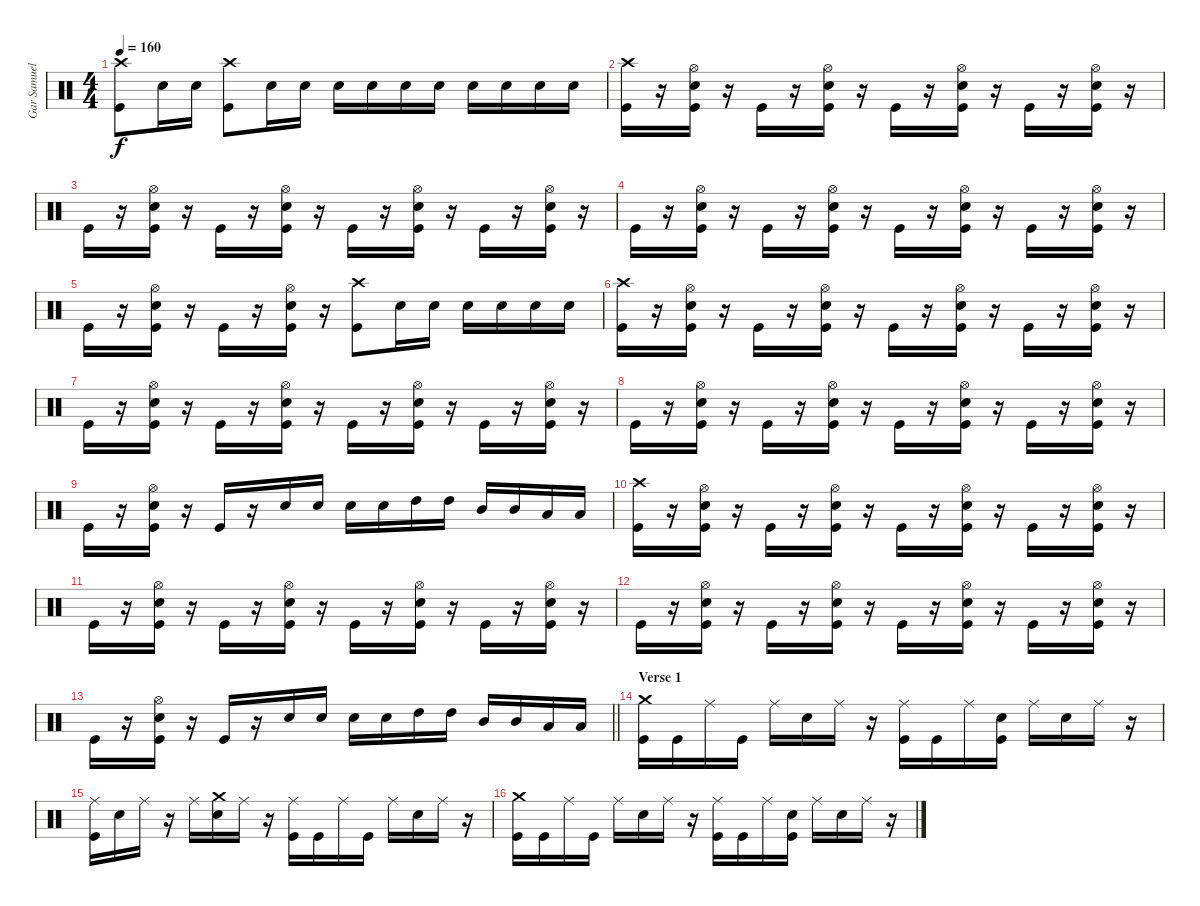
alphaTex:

\track ("Gar Samuelson" "Gar Samuel") {instrument percussion}
\staff {score}
\articulation defaults
\ts (4 4)
\tempo 160
\clef neutral
\ks c
("Crash high (hit)" "Kick (hit)").8{dy f} "Snare (hit) 2".16 "Snare (hit) 2".16 ("Crash high (hit)" "Kick (hit)").8 "Snare (hit) 2".16 "Snare (hit) 2".16 "Snare (hit) 2".16 "Snare (hit) 2".16 "Snare (hit) 2".16 "Snare (hit) 2".16 "Snare (hit) 2".16 "Snare (hit) 2".16 "Snare (hit) 2".16 "Snare (hit) 2".16 |
("Crash high (hit)" "Kick (hit)").16 r.16 ("Hi-Hat (open)" "Snare (hit) 2" "Kick (hit)").16 r.16 "Kick (hit)".16 r.16 ("Hi-Hat (open)" "Snare (hit) 2" "Kick (hit)").16 r.16 "Kick (hit)".16 r.16 ("Hi-Hat (open)" "Snare (hit) 2" "Kick (hit)").16 r.16 "Kick (hit)".16 r.16 ("Hi-Hat (open)" "Snare (hit) 2" "Kick (hit)").16 r.16 |
"Kick (hit)".16 r.16 ("Hi-Hat (open)" "Snare (hit) 2" "Kick (hit)").16 r.16 "Kick (hit)".16 r.16 ("Hi-Hat (open)" "Snare (hit) 2" "Kick (hit)").16 r.16 "Kick (hit)".16 r.16 ("Hi-Hat (open)" "Snare (hit) 2" "Kick (hit)").16 r.16 "Kick (hit)".16 r.16 ("Hi-Hat (open)" "Snare (hit) 2" "Kick (hit)").16 r.16 |
"Kick (hit)".16 r.16 ("Hi-Hat (open)" "Snare (hit) 2" "Kick (hit)").16 r.16 "Kick (hit)".16 r.16 ("Hi-Hat (open)" "Snare (hit) 2" "Kick (hit)").16 r.16 "Kick (hit)".16 r.16 ("Hi-Hat (open)" "Snare (hit) 2" "Kick (hit)").16 r.16 "Kick (hit)".16 r.16 ("Hi-Hat (open)" "Snare (hit) 2" "Kick (hit)").16 r.16 |
"Kick (hit)".16 r.16 ("Hi-Hat (open)" "Snare (hit) 2" "Kick (hit)").16 r.16 "Kick (hit)".16 r.16 ("Hi-Hat (open)" "Snare (hit) 2" "Kick (hit)").16 r.16 ("Crash high (hit)" "Kick (hit)").8 "Snare (hit) 2".16 "Snare (hit) 2".16 "Snare (hit) 2".16 "Snare (hit) 2".16 "Snare (hit) 2".16 "Snare (hit) 2".16 |
("Crash high (hit)" "Kick (hit)").16 r.16 ("Hi-Hat (open)" "Snare (hit) 2" "Kick (hit)").16 r.16 "Kick (hit)".16 r.16 ("Hi-Hat (open)" "Snare (hit) 2" "Kick (hit)").16 r.16 "Kick (hit)".16 r.16 ("Hi-Hat (open)" "Snare (hit) 2" "Kick (hit)").16 r.16 "Kick (hit)".16 r.16 ("Hi-Hat (open)" "Snare (hit) 2" "Kick (hit)").16 r.16 |
"Kick (hit)".16 r.16 ("Hi-Hat (open)" "Snare (hit) 2" "Kick (hit)").16 r.16 "Kick (hit)".16 r.16 ("Hi-Hat (open)" "Snare (hit) 2" "Kick (hit)").16 r.16 "Kick (hit)".16 r.16 ("Hi-Hat (open)" "Snare (hit) 2" "Kick (hit)").16 r.16 "Kick (hit)".16 r.16 ("Hi-Hat (open)" "Snare (hit) 2" "Kick (hit)").16 r.16 |
"Kick (hit)".16 r.16 ("Hi-Hat (open)" "Snare (hit) 2" "Kick (hit)").16 r.16 "Kick (hit)".16 r.16 ("Hi-Hat (open)" "Snare (hit) 2" "Kick (hit)").16 r.16 "Kick (hit)".16 r.16 ("Hi-Hat (open)" "Snare (hit) 2" "Kick (hit)").16 r.16 "Kick (hit)".16 r.16 ("Hi-Hat (open)" "Snare (hit) 2" "Kick (hit)").16 r.16 |
"Kick (hit)".16 r.16 ("Hi-Hat (open)" "Snare (hit) 2" "Kick (hit)").16 r.16 "Kick (hit)".16 r.16 "Snare (hit) 2".16 "Snare (hit) 2".16 "Snare (hit) 2".16 "Snare (hit) 2".16 "High Tom (hit)".16 "High Tom (hit)".16 "Mid Tom (hit)".16 "Mid Tom (hit)".16 "Low Tom (hit)".16 "Low Tom (hit)".16 |
("Crash high (hit)" "Kick (hit)").16 r.16 ("Hi-Hat (open)" "Snare (hit) 2" "Kick (hit)").16 r.16 "Kick (hit)".16 r.16 ("Hi-Hat (open)" "Snare (hit) 2" "Kick (hit)").16 r.16 "Kick (hit)".16 r.16 ("Hi-Hat (open)" "Snare (hit) 2" "Kick (hit)").16 r.16 "Kick (hit)".16 r.16 ("Hi-Hat (open)" "Snare (hit) 2" "Kick (hit)").16 r.16 |
"Kick (hit)".16 r.16 ("Hi-Hat (open)" "Snare (hit) 2" "Kick (hit)").16 r.16 "Kick (hit)".16 r.16 ("Hi-Hat (open)" "Snare (hit) 2" "Kick (hit)").16 r.16 "Kick (hit)".16 r.16 ("Hi-Hat (open)" "Snare (hit) 2" "Kick (hit)").16 r.16 "Kick (hit)".16 r.16 ("Hi-Hat (open)" "Snare (hit) 2" "Kick (hit)").16 r.16 |
"Kick (hit)".16 r.16 ("Hi-Hat (open)" "Snare (hit) 2" "Kick (hit)").16 r.16 "Kick (hit)".16 r.16 ("Hi-Hat (open)" "Snare (hit) 2" "Kick (hit)").16 r.16 "Kick (hit)".16 r.16 ("Hi-Hat (open)" "Snare (hit) 2" "Kick (hit)").16 r.16 "Kick (hit)".16 r.16 ("Hi-Hat (open)" "Snare (hit) 2" "Kick (hit)").16 r.16 |
\barLineRight lightlight "Kick (hit)".16
r.16 ("Hi-Hat (open)" "Snare (hit) 2" "Kick (hit)").16 r.16 "Kick (hit)".16 r.16 "Snare (hit) 2".16 "Snare (hit) 2".16 "Snare (hit) 2".16 "Snare (hit) 2".16 "High Tom (hit)".16 "High Tom (hit)".16 "Mid Tom (hit)".16 "Mid Tom (hit)".16 "Low Tom (hit)".16 "Low Tom (hit)".16 |
\section ("" "Verse 1")
("Crash medium (hit)" "Kick (hit)").16 "Kick (hit)".16 "Ride (middle)".16 "Kick (hit)".16 "Ride (middle)".16 "Snare (hit) 2".16 "Ride (middle)".16 r.16 ("Ride (middle)" "Kick (hit)").16 "Kick (hit)".16 "Ride (middle)".16 ("Snare (hit) 2" "Kick (hit)").16 "Ride (middle)".16 "Snare (hit) 2".16 "Ride (middle)".16 r.16 |
("Ride (middle)" "Kick (hit)").16 "Snare (hit) 2".16 "Ride (middle)".16 r.16 "Ride (middle)".16 ("Crash medium (hit)" "Snare (hit) 2").16 "Ride (middle)".16 r.16 ("Ride (middle)" "Kick (hit)").16 "Kick (hit)".16 "Ride (middle)".16 "Kick (hit)".16 "Ride (middle)".16 "Snare (hit) 2".16 "Ride (middle)".16 r.16 |
("Crash medium (hit)" "Kick (hit)").16 "Kick (hit)".16 "Ride (middle)".16 "Kick (hit)".16 "Ride (middle)".16 "Snare (hit) 2".16 "Ride (middle)".16 r.16 ("Ride (middle)" "Kick (hit)").16 "Kick (hit)".16 "Ride (middle)".16 ("Snare (hit) 2" "Kick (hit)").16 "Ride (middle)".16 "Snare (hit) 2".16 "Ride (middle)".16 r.16
